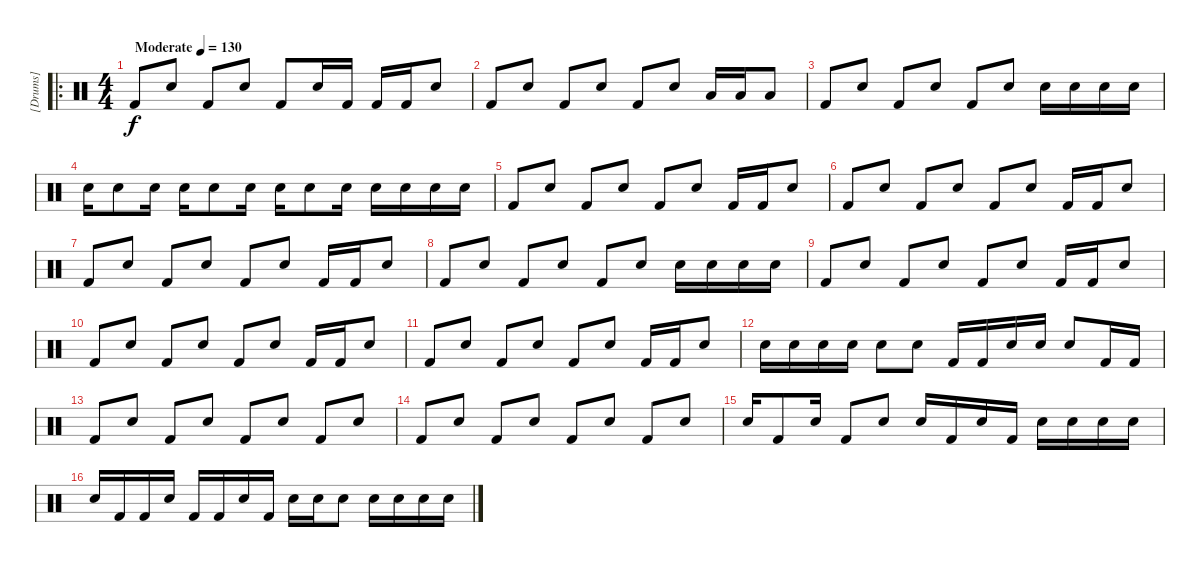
\track ("[Drums]" "[Drums]") {instrument percussion}
\staff {score}
\articulation defaults
\ro
\ts (4 4)
\tempo (130 "Moderate")
\clef neutral
\ks c "Kick (hit) 2".8{dy f} "Electric Snare (hit)".8 "Kick (hit) 2".8 "Electric Snare (hit)".8 "Kick (hit) 2".8 "Electric Snare (hit)".16 "Kick (hit) 2".16 "Kick (hit) 2".16 "Kick (hit) 2".16 "Electric Snare (hit)".8
|
"Kick (hit) 2".8 "Electric Snare (hit)".8 "Kick (hit) 2".8 "Electric Snare (hit)".8 "Kick (hit) 2".8 "Electric Snare (hit)".8 "Low Tom (hit)".16 "Low Tom (hit)".16 "Low Tom (hit)".8 |
"Kick (hit) 2".8 "Electric Snare (hit)".8 "Kick (hit) 2".8 "Electric Snare (hit)".8 "Kick (hit) 2".8 "Electric Snare (hit)".8 "Electric Snare (hit)".16 "Electric Snare (hit)".16 "Electric Snare (hit)".16 "Electric Snare (hit)".16 |
"Electric Snare (hit)".16 "Electric Snare (hit)".8 "Electric Snare (hit)".16 "Electric Snare (hit)".16 "Electric Snare (hit)".8 "Electric Snare (hit)".16 "Electric Snare (hit)".16 "Electric Snare (hit)".8 "Electric Snare (hit)".16 "Snare (hit) 2".16 "Snare (hit) 2".16 "Snare (hit) 2".16 "Snare (hit) 2".16 |
"Kick (hit) 2".8 "Electric Snare (hit)".8 "Kick (hit) 2".8 "Electric Snare (hit)".8 "Kick (hit) 2".8 "Electric Snare (hit)".8 "Kick (hit) 2".16 "Kick (hit) 2".16 "Electric Snare (hit)".8 |
"Kick (hit) 2".8 "Electric Snare (hit)".8 "Kick (hit) 2".8 "Electric Snare (hit)".8 "Kick (hit) 2".8 "Electric Snare (hit)".8 "Kick (hit) 2".16 "Kick (hit) 2".16 "Electric Snare (hit)".8 |
"Kick (hit) 2".8 "Electric Snare (hit)".8 "Kick (hit) 2".8 "Electric Snare (hit)".8 "Kick (hit) 2".8 "Electric Snare (hit)".8 "Kick (hit) 2".16 "Kick (hit) 2".16 "Electric Snare (hit)".8 |
"Kick (hit) 2".8 "Electric Snare (hit)".8 "Kick (hit) 2".8 "Electric Snare (hit)".8 "Kick (hit) 2".8 "Electric Snare (hit)".8 "Electric Snare (hit)".16 "Electric Snare (hit)".16 "Electric Snare (hit)".16 "Electric Snare (hit)".16 |
"Kick (hit) 2".8 "Electric Snare (hit)".8 "Kick (hit) 2".8 "Electric Snare (hit)".8 "Kick (hit) 2".8 "Electric Snare (hit)".8 "Kick (hit) 2".16 "Kick (hit) 2".16 "Electric Snare (hit)".8 |
"Kick (hit) 2".8 "Electric Snare (hit)".8 "Kick (hit) 2".8 "Electric Snare (hit)".8 "Kick (hit) 2".8 "Electric Snare (hit)".8 "Kick (hit) 2".16 "Kick (hit) 2".16 "Electric Snare (hit)".8 |
"Kick (hit) 2".8 "Electric Snare (hit)".8 "Kick (hit) 2".8 "Electric Snare (hit)".8 "Kick (hit) 2".8 "Electric Snare (hit)".8 "Kick (hit) 2".16 "Kick (hit) 2".16 "Electric Snare (hit)".8 |
"Electric Snare (hit)".16 "Electric Snare (hit)".16 "Electric Snare (hit)".16 "Electric Snare (hit)".16 "Electric Snare (hit)".8 "Electric Snare (hit)".8 "Kick (hit) 2".16 "Kick (hit) 2".16 "Electric Snare (hit)".16 "Electric Snare (hit)".16 "Electric Snare (hit)".8 "Kick (hit) 2".16 "Kick (hit) 2".16 |
"Kick (hit) 2".8 "Electric Snare (hit)".8 "Kick (hit) 2".8 "Electric Snare (hit)".8 "Kick (hit) 2".8 "Electric Snare (hit)".8 "Kick (hit) 2".8 "Electric Snare (hit)".8 |
"Kick (hit) 2".8 "Electric Snare (hit)".8 "Kick (hit) 2".8 "Electric Snare (hit)".8 "Kick (hit) 2".8 "Electric Snare (hit)".8 "Kick (hit) 2".8 "Electric Snare (hit)".8 |
"Electric Snare (hit)".16 "Kick (hit) 2".8 "Electric Snare (hit)".16 "Kick (hit) 2".8 "Electric Snare (hit)".8 "Electric Snare (hit)".16 "Kick (hit) 2".16 "Electric Snare (hit)".16 "Kick (hit) 2".16 "Electric Snare (hit)".16 "Electric Snare (hit)".16 "Electric Snare (hit)".16 "Electric Snare (hit)".16 |
"Electric Snare (hit)".16 "Kick (hit) 2".16 "Kick (hit) 2".16 "Electric Snare (hit)".16 "Kick (hit) 2".16 "Kick (hit) 2".16 "Electric Snare (hit)".16 "Kick (hit) 2".16 "Electric Snare (hit)".16 "Electric Snare (hit)".16 "Electric Snare (hit)".8 "Electric Snare (hit)".16 "Electric Snare (hit)".16 "Electric Snare (hit)".16 "Electric Snare (hit)".16
